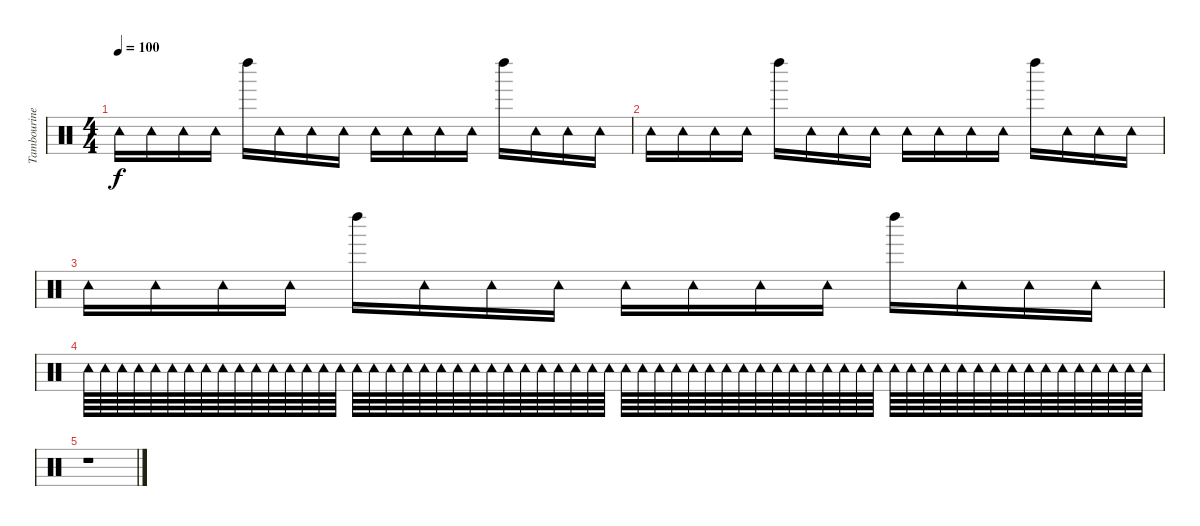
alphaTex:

\track ("Tambourine(Alan)" "Tambourine") {instrument percussion}
\staff {score}
\articulation defaults
\ts (4 4)
\tempo 100
\clef neutral
\ks c "Tambourine (hit)".16{dy f} "Tambourine (hit)".16 "Tambourine (hit)".16 "Tambourine (hit)".16 "Left Maraca (hit)".16 "Tambourine (hit)".16 "Tambourine (hit)".16 "Tambourine (hit)".16 "Tambourine (hit)".16 "Tambourine (hit)".16 "Tambourine (hit)".16 "Tambourine (hit)".16 "Left Maraca (hit)".16 "Tambourine (hit)".16 "Tambourine (hit)".16 "Tambourine (hit)".16
|
"Tambourine (hit)".16 "Tambourine (hit)".16 "Tambourine (hit)".16 "Tambourine (hit)".16 "Left Maraca (hit)".16 "Tambourine (hit)".16 "Tambourine (hit)".16 "Tambourine (hit)".16 "Tambourine (hit)".16 "Tambourine (hit)".16 "Tambourine (hit)".16 "Tambourine (hit)".16 "Left Maraca (hit)".16 "Tambourine (hit)".16 "Tambourine (hit)".16 "Tambourine (hit)".16 |
"Tambourine (hit)".16 "Tambourine (hit)".16 "Tambourine (hit)".16 "Tambourine (hit)".16 "Left Maraca (hit)".16 "Tambourine (hit)".16 "Tambourine (hit)".16 "Tambourine (hit)".16 "Tambourine (hit)".16 "Tambourine (hit)".16 "Tambourine (hit)".16 "Tambourine (hit)".16 "Left Maraca (hit)".16 "Tambourine (hit)".16 "Tambourine (hit)".16 "Tambourine (hit)".16 |
"Tambourine (hit)".64{volume 11} "Tambourine (hit)".64 "Tambourine (hit)".64 "Tambourine (hit)".64 "Tambourine (hit)".64 "Tambourine (hit)".64 "Tambourine (hit)".64 "Tambourine (hit)".64 "Tambourine (hit)".64 "Tambourine (hit)".64 "Tambourine (hit)".64 "Tambourine (hit)".64 "Tambourine (hit)".64 "Tambourine (hit)".64 "Tambourine (hit)".64 "Tambourine (hit)".64 "Tambourine (hit)".64{volume 9} "Tambourine (hit)".64 "Tambourine (hit)".64 "Tambourine (hit)".64 "Tambourine (hit)".64 "Tambourine (hit)".64 "Tambourine (hit)".64 "Tambourine (hit)".64 "Tambourine (hit)".64{volume 7} "Tambourine (hit)".64 "Tambourine (hit)".64 "Tambourine (hit)".64 "Tambourine (hit)".64 "Tambourine (hit)".64 "Tambourine (hit)".64 "Tambourine (hit)".64 "Tambourine (hit)".64 "Tambourine (hit)".64{volume 6} "Tambourine (hit)".64 "Tambourine (hit)".64 "Tambourine (hit)".64 "Tambourine (hit)".64 "Tambourine (hit)".64 "Tambourine (hit)".64 "Tambourine (hit)".64 "Tambourine (hit)".64 "Tambourine (hit)".64 "Tambourine (hit)".64 "Tambourine (hit)".64 "Tambourine (hit)".64 "Tambourine (hit)".64 "Tambourine (hit)".64 "Tambourine (hit)".64{volume 5} "Tambourine (hit)".64{volume 5} "Tambourine (hit)".64 "Tambourine (hit)".64 "Tambourine (hit)".64 "Tambourine (hit)".64 "Tambourine (hit)".64 "Tambourine (hit)".64 "Tambourine (hit)".64{volume 2} "Tambourine (hit)".64 "Tambourine (hit)".64 "Tambourine (hit)".64 "Tambourine (hit)".64 "Tambourine (hit)".64 "Tambourine (hit)".64 "Tambourine (hit)".64 |
r.1
